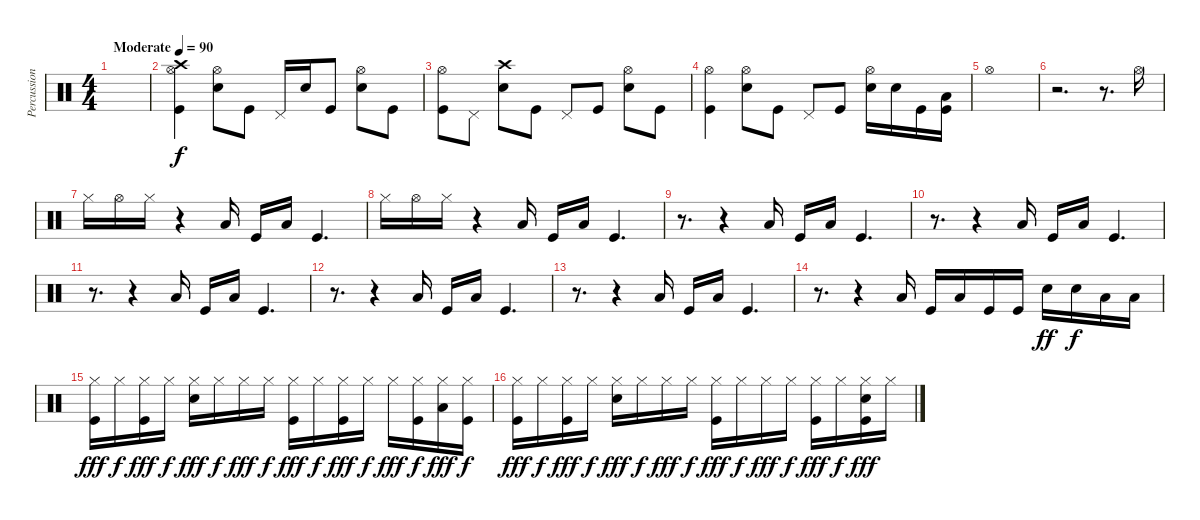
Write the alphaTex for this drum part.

\track ("Percussion" "Percussion") {instrument percussion}
\staff {score}
\articulation defaults
\ts (4 4)
\tempo (90 "Moderate")
\clef neutral
\ks c
|
("Kick (hit)" "Hi-Hat (open)" "Crash high (hit)").4 ("Snare (hit) 2" "Hi-Hat (open)").8 "Kick (hit)".8 "Pedal Hi-Hat (hit)".16 "Snare (hit) 2".16 "Kick (hit)".8 ("Snare (hit) 2" "Hi-Hat (open)").8 "Kick (hit)".8 |
("Kick (hit)" "Hi-Hat (open)").8 "Pedal Hi-Hat (hit)".8 ("Snare (hit) 2" "Crash high (hit)").8 "Kick (hit)".8 "Pedal Hi-Hat (hit)".8 "Kick (hit)".8 ("Snare (hit) 2" "Hi-Hat (open)").8 "Kick (hit)".8 |
("Kick (hit)" "Hi-Hat (open)").4 ("Snare (hit) 2" "Hi-Hat (open)").8 "Kick (hit)".8 "Pedal Hi-Hat (hit)".8 "Kick (hit)".8 ("Snare (hit) 2" "Hi-Hat (open)").16 "Snare (hit) 2".16 "Kick (hit)".16 ("Kick (hit)" "Low Tom (hit)").16 |
"Hi-Hat (open)".1 |
r.2{d} r.8{d} "Hi-Hat (open)".16 |
"Hi-Hat (closed)".16 "Hi-Hat (open)".16 "Hi-Hat (closed)".16 r.4 "Low Tom (hit)".16 "Kick (hit)".16 "Low Tom (hit)".16 "Kick (hit)".4{d} |
"Hi-Hat (closed)".16 "Hi-Hat (open)".16 "Hi-Hat (closed)".16 r.4 "Low Tom (hit)".16 "Kick (hit)".16 "Low Tom (hit)".16 "Kick (hit)".4{d} |
r.8{d} r.4 "Low Tom (hit)".16 "Kick (hit)".16 "Low Tom (hit)".16 "Kick (hit)".4{d} |
r.8{d} r.4 "Low Tom (hit)".16 "Kick (hit)".16 "Low Tom (hit)".16 "Kick (hit)".4{d} |
r.8{d} r.4 "Low Tom (hit)".16 "Kick (hit)".16 "Low Tom (hit)".16 "Kick (hit)".4{d} |
r.8{d} r.4 "Low Tom (hit)".16 "Kick (hit)".16 "Low Tom (hit)".16 "Kick (hit)".4{d} |
r.8{d} r.4 "Low Tom (hit)".16 "Kick (hit)".16 "Low Tom (hit)".16 "Kick (hit)".4{d} |
r.8{d} r.4 "Low Tom (hit)".16 "Kick (hit)".16 "Low Tom (hit)".16 "Kick (hit)".16 "Kick (hit)".16 "Snare (hit) 2".16{dy ff} "Snare (hit) 2".16{dy f} "Low Tom (hit)".16 "Low Floor Tom (hit)".16 |
("Hi-Hat (closed)" "Kick (hit)").16{dy fff} "Hi-Hat (closed)".16{dy f} ("Hi-Hat (closed)" "Kick (hit)").16{dy fff} "Hi-Hat (closed)".16{dy f} ("Hi-Hat (closed)" "Snare (hit) 2").16{dy fff} "Hi-Hat (closed)".16{dy f} "Hi-Hat (closed)".16{dy fff} "Hi-Hat (closed)".16{dy f} ("Hi-Hat (closed)" "Kick (hit)").16{dy fff} "Hi-Hat (closed)".16{dy f} ("Hi-Hat (closed)" "Kick (hit)").16{dy fff} "Hi-Hat (closed)".16{dy f} "Hi-Hat (closed)".16{dy fff} ("Hi-Hat (closed)" "Kick (hit)").16{dy f} ("Hi-Hat (closed)" "Low Tom (hit)").16{dy fff} ("Hi-Hat (closed)" "Kick (hit)").16{dy f} |
("Hi-Hat (closed)" "Kick (hit)").16{dy fff} "Hi-Hat (closed)".16{dy f} ("Hi-Hat (closed)" "Kick (hit)").16{dy fff} "Hi-Hat (closed)".16{dy f} ("Hi-Hat (closed)" "Snare (hit) 2").16{dy fff} "Hi-Hat (closed)".16{dy f} "Hi-Hat (closed)".16{dy fff} "Hi-Hat (closed)".16{dy f} ("Hi-Hat (closed)" "Kick (hit)").16{dy fff} "Hi-Hat (closed)".16{dy f} "Hi-Hat (closed)".16{dy fff} "Hi-Hat (closed)".16{dy f} ("Hi-Hat (closed)" "Kick (hit)").16{dy fff} "Hi-Hat (closed)".16{dy f} ("Hi-Hat (closed)" "Kick (hit)" "Snare (hit) 2").16{dy fff} "Hi-Hat (closed)".16
